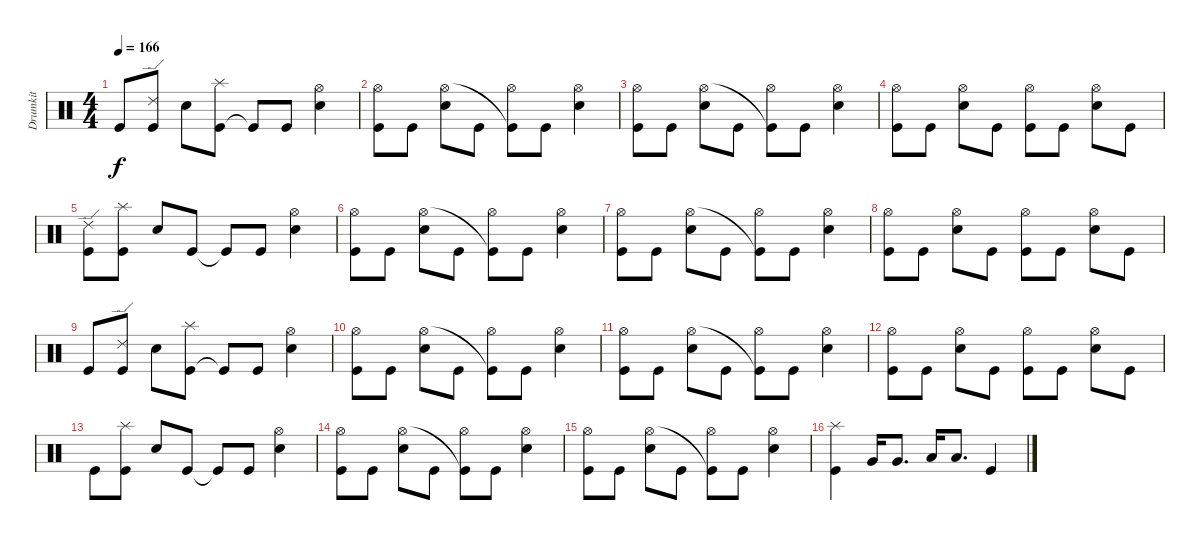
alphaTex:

\track ("Drumkit" "Drumkit") {instrument percussion}
\staff {score}
\articulation defaults
\ts (4 4)
\tempo 166
\clef neutral
\ks c "Kick (hit)".8{dy f}
("Kick (hit)" "Ride (edge) 2").8 "Snare (hit) 2".8 ("Kick (hit)" "Splash (hit)").8 "Kick (hit)"{t}.8 "Kick (hit)".8 ("Snare (hit) 2" "Hi-Hat (open)").4 |
("Kick (hit)" "Hi-Hat (open)").8 "Kick (hit)".8 ("Snare (hit) 2" "Hi-Hat (open)").8 "Kick (hit)".8 ("Hi-Hat (open)" "Kick (hit)"{t}).8 "Kick (hit)".8 ("Snare (hit) 2" "Hi-Hat (open)").4 |
("Kick (hit)" "Hi-Hat (open)").8 "Kick (hit)".8 ("Snare (hit) 2" "Hi-Hat (open)").8 "Kick (hit)".8 ("Hi-Hat (open)" "Kick (hit)"{t}).8 "Kick (hit)".8 ("Snare (hit) 2" "Hi-Hat (open)").4 |
("Kick (hit)" "Hi-Hat (open)").8 "Kick (hit)".8 ("Snare (hit) 2" "Hi-Hat (open)").8 "Kick (hit)".8 ("Hi-Hat (open)" "Kick (hit)").8 "Kick (hit)".8 ("Snare (hit) 2" "Hi-Hat (open)").8 "Kick (hit)".8 |
("Kick (hit)" "Ride (edge) 2").8 ("Kick (hit)" "Splash (hit)").8 "Snare (hit) 2".8 "Kick (hit)".8 "Kick (hit)"{t}.8 "Kick (hit)".8 ("Snare (hit) 2" "Hi-Hat (open)").4 |
("Kick (hit)" "Hi-Hat (open)").8 "Kick (hit)".8 ("Snare (hit) 2" "Hi-Hat (open)").8 "Kick (hit)".8 ("Hi-Hat (open)" "Kick (hit)"{t}).8 "Kick (hit)".8 ("Snare (hit) 2" "Hi-Hat (open)").4 |
("Kick (hit)" "Hi-Hat (open)").8 "Kick (hit)".8 ("Snare (hit) 2" "Hi-Hat (open)").8 "Kick (hit)".8 ("Hi-Hat (open)" "Kick (hit)"{t}).8 "Kick (hit)".8 ("Snare (hit) 2" "Hi-Hat (open)").4 |
("Kick (hit)" "Hi-Hat (open)").8 "Kick (hit)".8 ("Snare (hit) 2" "Hi-Hat (open)").8 "Kick (hit)".8 ("Hi-Hat (open)" "Kick (hit)").8 "Kick (hit)".8 ("Snare (hit) 2" "Hi-Hat (open)").8 "Kick (hit)".8 |
"Kick (hit)".8 ("Kick (hit)" "Ride (edge) 2").8 "Snare (hit) 2".8 ("Kick (hit)" "Splash (hit)").8 "Kick (hit)"{t}.8 "Kick (hit)".8 ("Snare (hit) 2" "Hi-Hat (open)").4 |
("Kick (hit)" "Hi-Hat (open)").8 "Kick (hit)".8 ("Snare (hit) 2" "Hi-Hat (open)").8 "Kick (hit)".8 ("Hi-Hat (open)" "Kick (hit)"{t}).8 "Kick (hit)".8 ("Snare (hit) 2" "Hi-Hat (open)").4 |
("Kick (hit)" "Hi-Hat (open)").8 "Kick (hit)".8 ("Snare (hit) 2" "Hi-Hat (open)").8 "Kick (hit)".8 ("Hi-Hat (open)" "Kick (hit)"{t}).8 "Kick (hit)".8 ("Snare (hit) 2" "Hi-Hat (open)").4 |
("Kick (hit)" "Hi-Hat (open)").8 "Kick (hit)".8 ("Snare (hit) 2" "Hi-Hat (open)").8 "Kick (hit)".8 ("Hi-Hat (open)" "Kick (hit)").8 "Kick (hit)".8 ("Snare (hit) 2" "Hi-Hat (open)").8 "Kick (hit)".8 |
"Kick (hit)".8 ("Kick (hit)" "Splash (hit)").8 "Snare (hit) 2".8 "Kick (hit)".8 "Kick (hit)"{t}.8 "Kick (hit)".8 ("Snare (hit) 2" "Hi-Hat (open)").4 |
("Kick (hit)" "Hi-Hat (open)").8 "Kick (hit)".8 ("Snare (hit) 2" "Hi-Hat (open)").8 "Kick (hit)".8 ("Hi-Hat (open)" "Kick (hit)"{t}).8 "Kick (hit)".8 ("Snare (hit) 2" "Hi-Hat (open)").4 |
("Kick (hit)" "Hi-Hat (open)").8 "Kick (hit)".8 ("Snare (hit) 2" "Hi-Hat (open)").8 "Kick (hit)".8 ("Hi-Hat (open)" "Kick (hit)"{t}).8 "Kick (hit)".8 ("Snare (hit) 2" "Hi-Hat (open)").4 |
("Kick (hit)" "Splash (hit)").4 "Very Low Tom (hit)".16 "Very Low Tom (hit)".8{d} "Low Floor Tom (hit)".16 "Low Floor Tom (hit)".8{d} "Kick (hit)".4
